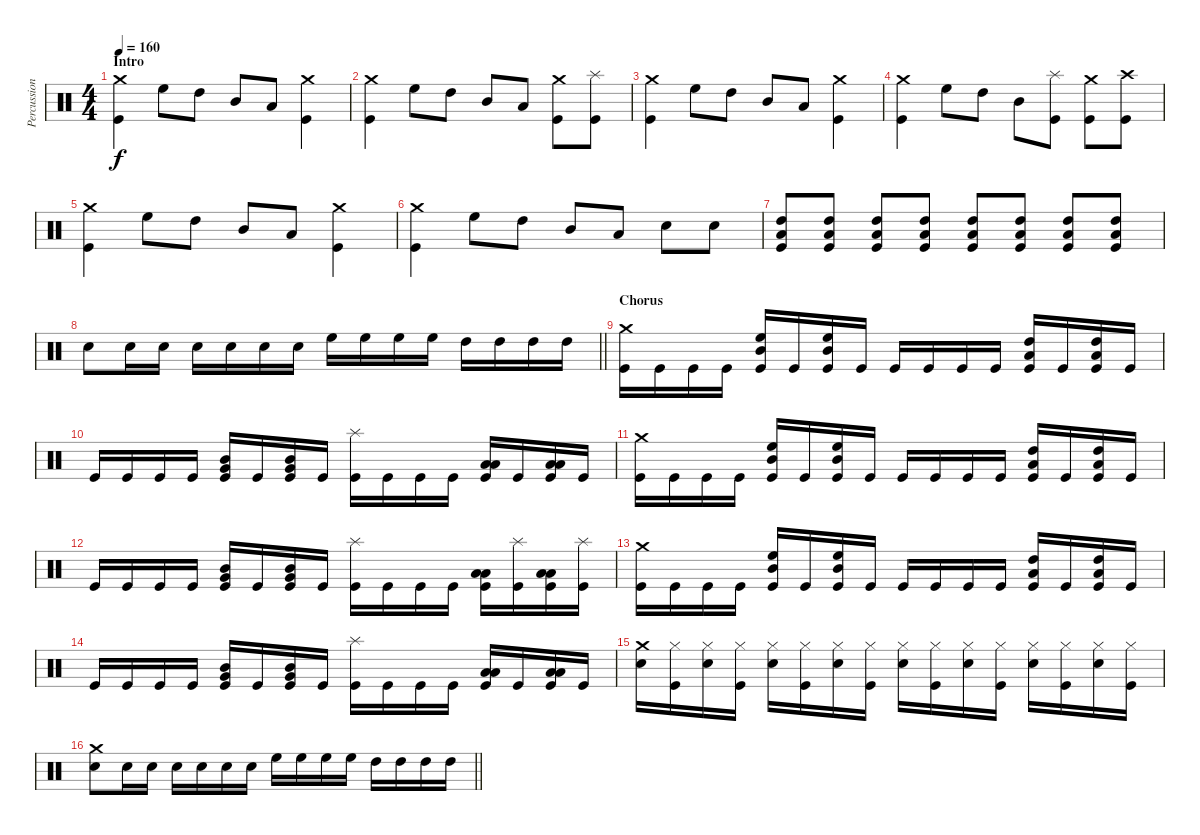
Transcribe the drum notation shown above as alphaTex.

\track ("Percussion" "Percussion") {instrument percussion}
\staff {score}
\articulation defaults
\ts (4 4)
\section ("" "Intro")
\tempo 160
\clef neutral
\ks c
("Crash medium (hit)" "Kick (hit)").4{dy f} "High Floor Tom (hit)".8 "High Tom (hit)".8 "Mid Tom (hit)".8 "Low Tom (hit)".8 ("Crash medium (hit)" "Kick (hit)").4 |
("Crash medium (hit)" "Kick (hit)").4 "High Floor Tom (hit)".8 "High Tom (hit)".8 "Mid Tom (hit)".8 "Low Tom (hit)".8 ("Crash medium (hit)" "Kick (hit)").8 ("Splash (hit)" "Kick (hit)").8 |
("Crash medium (hit)" "Kick (hit)").4 "High Floor Tom (hit)".8 "High Tom (hit)".8 "Mid Tom (hit)".8 "Low Tom (hit)".8 ("Crash medium (hit)" "Kick (hit)").4 |
("Crash medium (hit)" "Kick (hit)").4 "High Floor Tom (hit)".8 "High Tom (hit)".8 "Mid Tom (hit)".8 ("Splash (hit)" "Kick (hit)").8 ("Crash medium (hit)" "Kick (hit)").8 ("Crash high (hit)" "Kick (hit)").8 |
("Crash medium (hit)" "Kick (hit)").4 "High Floor Tom (hit)".8 "High Tom (hit)".8 "Mid Tom (hit)".8 "Low Tom (hit)".8 ("Crash medium (hit)" "Kick (hit)").4 |
("Crash medium (hit)" "Kick (hit)").4 "High Floor Tom (hit)".8 "High Tom (hit)".8 "Mid Tom (hit)".8 "Low Tom (hit)".8 "Snare (hit) 2".8 "Snare (hit) 2".8 |
("High Tom (hit)" "Low Tom (hit)" "Kick (hit)").8 ("High Tom (hit)" "Low Tom (hit)" "Kick (hit)").8 ("High Tom (hit)" "Low Tom (hit)" "Kick (hit)").8 ("High Tom (hit)" "Low Tom (hit)" "Kick (hit)").8 ("High Tom (hit)" "Low Tom (hit)" "Kick (hit)").8 ("High Tom (hit)" "Low Tom (hit)" "Kick (hit)").8 ("High Tom (hit)" "Low Tom (hit)" "Kick (hit)").8 ("High Tom (hit)" "Low Tom (hit)" "Kick (hit)").8 |
\barLineRight lightlight "Snare (hit) 2".8 "Snare (hit) 2".16 "Snare (hit) 2".16 "Snare (hit) 2".16 "Snare (hit) 2".16 "Snare (hit) 2".16 "Snare (hit) 2".16 "High Floor Tom (hit)".16 "High Floor Tom (hit)".16 "High Floor Tom (hit)".16 "High Floor Tom (hit)".16 "High Tom (hit)".16 "High Tom (hit)".16 "High Tom (hit)".16 "High Tom (hit)".16
|
\section ("" "Chorus")
("Crash medium (hit)" "Kick (hit)").16 "Kick (hit)".16 "Kick (hit)".16 "Kick (hit)".16 ("Kick (hit)" "High Floor Tom (hit)" "Mid Tom (hit)").16 "Kick (hit)".16 ("Kick (hit)" "High Floor Tom (hit)" "Mid Tom (hit)").16 "Kick (hit)".16 "Kick (hit)".16 "Kick (hit)".16 "Kick (hit)".16 "Kick (hit)".16 ("Kick (hit)" "High Tom (hit)" "Low Tom (hit)").16 "Kick (hit)".16 ("Kick (hit)" "High Tom (hit)" "Low Tom (hit)").16 "Kick (hit)".16 |
"Kick (hit)".16 "Kick (hit)".16 "Kick (hit)".16 "Kick (hit)".16 ("Kick (hit)" "Mid Tom (hit)" "Very Low Tom (hit)").16 "Kick (hit)".16 ("Kick (hit)" "Mid Tom (hit)" "Very Low Tom (hit)").16 "Kick (hit)".16 ("Splash (hit)" "Kick (hit)").16 "Kick (hit)".16 "Kick (hit)".16 "Kick (hit)".16 ("Kick (hit)" "Low Tom (hit)" "Low Floor Tom (hit)").16 "Kick (hit)".16 ("Kick (hit)" "Low Tom (hit)" "Low Floor Tom (hit)").16 "Kick (hit)".16 |
("Crash medium (hit)" "Kick (hit)").16 "Kick (hit)".16 "Kick (hit)".16 "Kick (hit)".16 ("Kick (hit)" "High Floor Tom (hit)" "Mid Tom (hit)").16 "Kick (hit)".16 ("Kick (hit)" "High Floor Tom (hit)" "Mid Tom (hit)").16 "Kick (hit)".16 "Kick (hit)".16 "Kick (hit)".16 "Kick (hit)".16 "Kick (hit)".16 ("Kick (hit)" "High Tom (hit)" "Low Tom (hit)").16 "Kick (hit)".16 ("Kick (hit)" "High Tom (hit)" "Low Tom (hit)").16 "Kick (hit)".16 |
"Kick (hit)".16 "Kick (hit)".16 "Kick (hit)".16 "Kick (hit)".16 ("Kick (hit)" "Mid Tom (hit)" "Very Low Tom (hit)").16 "Kick (hit)".16 ("Kick (hit)" "Mid Tom (hit)" "Very Low Tom (hit)").16 "Kick (hit)".16 ("Splash (hit)" "Kick (hit)").16 "Kick (hit)".16 "Kick (hit)".16 "Kick (hit)".16 ("Kick (hit)" "Low Tom (hit)" "Low Floor Tom (hit)").16 ("Splash (hit)" "Kick (hit)").16 ("Kick (hit)" "Low Tom (hit)" "Low Floor Tom (hit)").16 ("Splash (hit)" "Kick (hit)").16 |
("Crash medium (hit)" "Kick (hit)").16 "Kick (hit)".16 "Kick (hit)".16 "Kick (hit)".16 ("Kick (hit)" "High Floor Tom (hit)" "Mid Tom (hit)").16 "Kick (hit)".16 ("Kick (hit)" "High Floor Tom (hit)" "Mid Tom (hit)").16 "Kick (hit)".16 "Kick (hit)".16 "Kick (hit)".16 "Kick (hit)".16 "Kick (hit)".16 ("Kick (hit)" "High Tom (hit)" "Low Tom (hit)").16 "Kick (hit)".16 ("Kick (hit)" "High Tom (hit)" "Low Tom (hit)").16 "Kick (hit)".16 |
"Kick (hit)".16 "Kick (hit)".16 "Kick (hit)".16 "Kick (hit)".16 ("Kick (hit)" "Mid Tom (hit)" "Very Low Tom (hit)").16 "Kick (hit)".16 ("Kick (hit)" "Mid Tom (hit)" "Very Low Tom (hit)").16 "Kick (hit)".16 ("Splash (hit)" "Kick (hit)").16 "Kick (hit)".16 "Kick (hit)".16 "Kick (hit)".16 ("Kick (hit)" "Low Tom (hit)" "Low Floor Tom (hit)").16 "Kick (hit)".16 ("Kick (hit)" "Low Tom (hit)" "Low Floor Tom (hit)").16 "Kick (hit)".16 |
("Crash medium (hit)" "Snare (hit) 2").16 ("Hi-Hat (closed)" "Kick (hit)").16 ("Hi-Hat (closed)" "Snare (hit) 2").16 ("Hi-Hat (closed)" "Kick (hit)").16 ("Hi-Hat (closed)" "Snare (hit) 2").16 ("Hi-Hat (closed)" "Kick (hit)").16 ("Hi-Hat (closed)" "Snare (hit) 2").16 ("Hi-Hat (closed)" "Kick (hit)").16 ("Hi-Hat (closed)" "Snare (hit) 2").16 ("Hi-Hat (closed)" "Kick (hit)").16 ("Hi-Hat (closed)" "Snare (hit) 2").16 ("Hi-Hat (closed)" "Kick (hit)").16 ("Hi-Hat (closed)" "Snare (hit) 2").16 ("Hi-Hat (closed)" "Kick (hit)").16 ("Hi-Hat (closed)" "Snare (hit) 2").16 ("Hi-Hat (closed)" "Kick (hit)").16 |
\barLineRight lightlight
("Crash medium (hit)" "Snare (hit) 2").8 "Snare (hit) 2".16 "Snare (hit) 2".16 "Snare (hit) 2".16 "Snare (hit) 2".16 "Snare (hit) 2".16 "Snare (hit) 2".16 "High Floor Tom (hit)".16 "High Floor Tom (hit)".16 "High Floor Tom (hit)".16 "High Floor Tom (hit)".16 "High Tom (hit)".16 "High Tom (hit)".16 "High Tom (hit)".16 "High Tom (hit)".16
